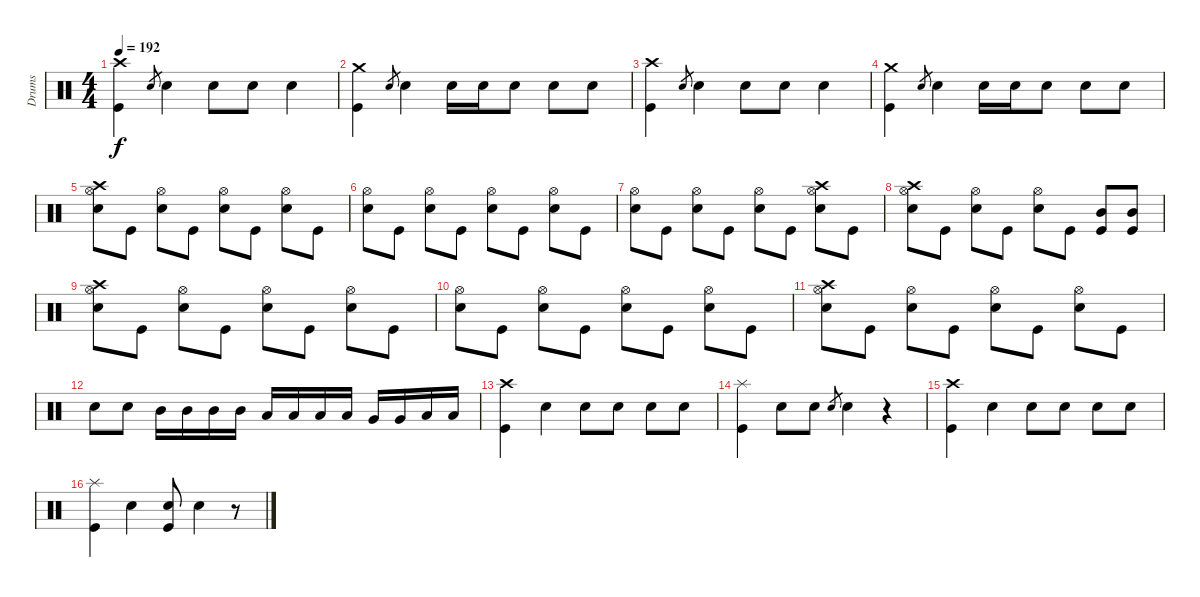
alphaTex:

\track ("Drums" "Drums") {instrument percussion}
\staff {score}
\articulation defaults
\ts (4 4)
\tempo 192
\clef neutral
\ks c
("Crash high (hit)" "Kick (hit)").4{dy f} "Snare (hit) 2".8{gr} "Snare (hit) 2".4 "Snare (hit) 2".8 "Snare (hit) 2".8 "Snare (hit) 2".4 |
("Crash medium (hit)" "Kick (hit)").4 "Snare (hit) 2".8{gr} "Snare (hit) 2".4 "Snare (hit) 2".16 "Snare (hit) 2".16 "Snare (hit) 2".8 "Snare (hit) 2".8 "Snare (hit) 2".8 |
("Crash high (hit)" "Kick (hit)").4 "Snare (hit) 2".8{gr} "Snare (hit) 2".4 "Snare (hit) 2".8 "Snare (hit) 2".8 "Snare (hit) 2".4 |
("Crash medium (hit)" "Kick (hit)").4 "Snare (hit) 2".8{gr} "Snare (hit) 2".4 "Snare (hit) 2".16 "Snare (hit) 2".16 "Snare (hit) 2".8 "Snare (hit) 2".8 "Snare (hit) 2".8 |
("Crash high (hit)" "Hi-Hat (open)" "Snare (hit) 2").8 "Kick (hit)".8 ("Hi-Hat (open)" "Snare (hit) 2").8 "Kick (hit)".8 ("Hi-Hat (open)" "Snare (hit) 2").8 "Kick (hit)".8 ("Hi-Hat (open)" "Snare (hit) 2").8 "Kick (hit)".8 |
("Hi-Hat (open)" "Snare (hit) 2").8 "Kick (hit)".8 ("Hi-Hat (open)" "Snare (hit) 2").8 "Kick (hit)".8 ("Hi-Hat (open)" "Snare (hit) 2").8 "Kick (hit)".8 ("Hi-Hat (open)" "Snare (hit) 2").8 "Kick (hit)".8 |
("Hi-Hat (open)" "Snare (hit) 2").8 "Kick (hit)".8 ("Hi-Hat (open)" "Snare (hit) 2").8 "Kick (hit)".8 ("Hi-Hat (open)" "Snare (hit) 2").8 "Kick (hit)".8 ("Crash high (hit)" "Hi-Hat (open)" "Snare (hit) 2").8 "Kick (hit)".8 |
("Crash high (hit)" "Hi-Hat (open)" "Snare (hit) 2").8 "Kick (hit)".8 ("Hi-Hat (open)" "Snare (hit) 2").8 "Kick (hit)".8 ("Hi-Hat (open)" "Snare (hit) 2").8 "Kick (hit)".8 ("Mid Tom (hit)" "Kick (hit)").8 ("Mid Tom (hit)" "Kick (hit)").8 |
("Crash high (hit)" "Hi-Hat (open)" "Snare (hit) 2").8 "Kick (hit)".8 ("Hi-Hat (open)" "Snare (hit) 2").8 "Kick (hit)".8 ("Hi-Hat (open)" "Snare (hit) 2").8 "Kick (hit)".8 ("Hi-Hat (open)" "Snare (hit) 2").8 "Kick (hit)".8 |
("Hi-Hat (open)" "Snare (hit) 2").8 "Kick (hit)".8 ("Hi-Hat (open)" "Snare (hit) 2").8 "Kick (hit)".8 ("Hi-Hat (open)" "Snare (hit) 2").8 "Kick (hit)".8 ("Hi-Hat (open)" "Snare (hit) 2").8 "Kick (hit)".8 |
("Crash high (hit)" "Hi-Hat (open)" "Snare (hit) 2").8 "Kick (hit)".8 ("Hi-Hat (open)" "Snare (hit) 2").8 "Kick (hit)".8 ("Hi-Hat (open)" "Snare (hit) 2").8 "Kick (hit)".8 ("Hi-Hat (open)" "Snare (hit) 2").8 "Kick (hit)".8 |
"Snare (hit) 2".8 "Snare (hit) 2".8 "Mid Tom (hit)".16 "Mid Tom (hit)".16 "Mid Tom (hit)".16 "Mid Tom (hit)".16 "Low Tom (hit)".16 "Low Tom (hit)".16 "Low Tom (hit)".16 "Low Tom (hit)".16 "Very Low Tom (hit)".16 "Very Low Tom (hit)".16 "Low Floor Tom (hit)".16 "Low Floor Tom (hit)".16 |
("Crash high (hit)" "Kick (hit)").4 "Snare (hit) 2".4 "Snare (hit) 2".8 "Snare (hit) 2".8 "Snare (hit) 2".8 "Snare (hit) 2".8 |
("Splash (hit)" "Kick (hit)").4 "Snare (hit) 2".8 "Snare (hit) 2".8 "Snare (hit) 2".8{gr} "Snare (hit) 2".4 r.4 |
("Crash high (hit)" "Kick (hit)").4 "Snare (hit) 2".4 "Snare (hit) 2".8 "Snare (hit) 2".8 "Snare (hit) 2".8 "Snare (hit) 2".8 |
("Splash (hit)" "Kick (hit)").4 "Snare (hit) 2"{tr (38 16)}.4 ("Snare (hit) 2" "Kick (hit)").8 "Snare (hit) 2".4 r.8
